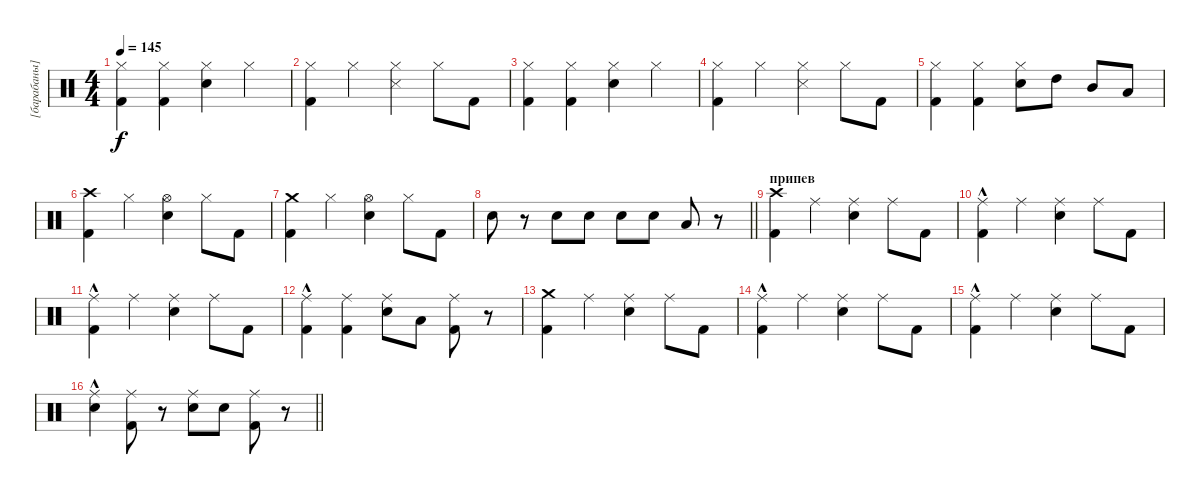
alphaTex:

\track ("[барабаны]" "[барабаны]") {instrument percussion}
\staff
\articulation defaults
\ts (4 4)
\tempo 145
\clef neutral
\ks c
("Hi-Hat (closed)" "Kick (hit) 2").4{dy f} ("Hi-Hat (closed)" "Kick (hit) 2").4 ("Hi-Hat (closed)" "Electric Snare (hit)").4 "Hi-Hat (closed)".4 |
("Hi-Hat (closed)" "Kick (hit) 2").4 "Hi-Hat (closed)".4 ("Hi-Hat (closed)" "Snare (side stick) 3").4 "Hi-Hat (closed)".8 "Kick (hit) 2".8 |
("Hi-Hat (closed)" "Kick (hit) 2").4 ("Hi-Hat (closed)" "Kick (hit) 2").4 ("Hi-Hat (closed)" "Electric Snare (hit)").4 "Hi-Hat (closed)".4 |
("Hi-Hat (closed)" "Kick (hit) 2").4 "Hi-Hat (closed)".4 ("Hi-Hat (closed)" "Snare (side stick) 3").4 "Hi-Hat (closed)".8 "Kick (hit) 2".8 |
("Hi-Hat (closed)" "Kick (hit) 2").4 ("Hi-Hat (closed)" "Kick (hit) 2").4 ("Hi-Hat (closed)" "Electric Snare (hit)").8 "High Tom (hit)".8 "Mid Tom (hit)".8 "Low Tom (hit)".8 |
("Crash high (hit)" "Kick (hit) 2").4 "Hi-Hat (closed)".4 ("Hi-Hat (open)" "Electric Snare (hit)").4 "Hi-Hat (closed)".8 "Kick (hit) 2".8 |
("Crash medium (hit)" "Kick (hit) 2").4 "Hi-Hat (closed)".4 ("Hi-Hat (open)" "Electric Snare (hit)").4 "Hi-Hat (closed)".8 "Kick (hit) 2".8 |
\barLineRight lightlight "Electric Snare (hit)".8
r.8 "Electric Snare (hit)".8 "Electric Snare (hit)".8 "Electric Snare (hit)".8 "Electric Snare (hit)".8 "Low Tom (hit)".8 r.8 |
\section ("" "припев")
("Crash high (hit)" "Kick (hit) 2").4 "Ride (middle)".4 ("Ride (middle)" "Electric Snare (hit)").4 "Ride (middle)".8 "Kick (hit) 2".8 |
("Ride (middle)"{hac} "Kick (hit) 2").4 "Ride (middle)".4 ("Ride (middle)" "Electric Snare (hit)").4 "Ride (middle)".8 "Kick (hit) 2".8 |
("Ride (middle)"{hac} "Kick (hit) 2").4 "Ride (middle)".4 ("Ride (middle)" "Electric Snare (hit)").4 "Ride (middle)".8 "Kick (hit) 2".8 |
("Ride (middle)"{hac} "Kick (hit) 2").4 ("Ride (middle)" "Kick (hit) 2").4 ("Ride (middle)" "Electric Snare (hit)").8 "Low Tom (hit)".8 ("Ride (middle)" "Kick (hit) 2").8 r.8 |
("Crash medium (hit)" "Kick (hit) 2").4 "Ride (middle)".4 ("Ride (middle)" "Electric Snare (hit)").4 "Ride (middle)".8 "Kick (hit) 2".8 |
("Ride (middle)"{hac} "Kick (hit) 2").4 "Ride (middle)".4 ("Ride (middle)" "Electric Snare (hit)").4 "Ride (middle)".8 "Kick (hit) 2".8 |
("Ride (middle)"{hac} "Kick (hit) 2").4 "Ride (middle)".4 ("Ride (middle)" "Electric Snare (hit)").4 "Ride (middle)".8 "Kick (hit) 2".8 |
\barLineRight lightlight
("Ride (middle)"{hac} "Electric Snare (hit)").4 ("Ride (middle)" "Kick (hit) 2").8 r.8 ("Ride (middle)" "Electric Snare (hit)").8 "Electric Snare (hit)".8 ("Ride (middle)" "Kick (hit) 2").8 r.8
